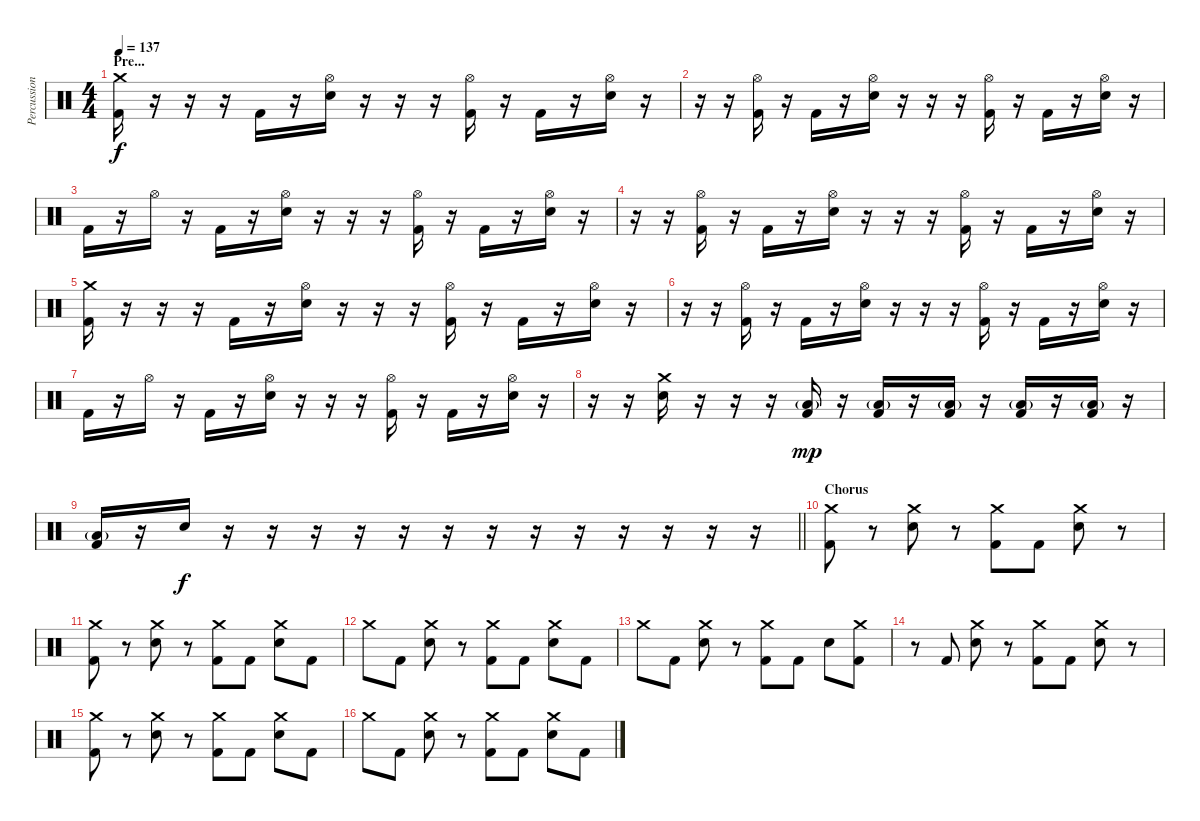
\track ("Percussion" "Percussion") {instrument percussion}
\staff {score}
\articulation defaults
\ts (4 4)
\section ("" "Pre... ")
\tempo 137
\clef neutral
\ks c
("Crash medium (hit)" "Kick (hit) 2").16{dy f} r.16 r.16 r.16 "Kick (hit) 2".16 r.16 ("Hi-Hat (open)" "Electric Snare (hit)").16 r.16 r.16 r.16 ("Hi-Hat (open)" "Kick (hit) 2").16 r.16 "Kick (hit) 2".16 r.16 ("Hi-Hat (open)" "Electric Snare (hit)").16 r.16 |
r.16 r.16 ("Hi-Hat (open)" "Kick (hit) 2").16 r.16 "Kick (hit) 2".16 r.16 ("Hi-Hat (open)" "Electric Snare (hit)").16 r.16 r.16 r.16 ("Hi-Hat (open)" "Kick (hit) 2").16 r.16 "Kick (hit) 2".16 r.16 ("Hi-Hat (open)" "Electric Snare (hit)").16 r.16 |
"Kick (hit) 2".16 r.16 "Hi-Hat (open)".16 r.16 "Kick (hit) 2".16 r.16 ("Hi-Hat (open)" "Electric Snare (hit)").16 r.16 r.16 r.16 ("Hi-Hat (open)" "Kick (hit) 2").16 r.16 "Kick (hit) 2".16 r.16 ("Hi-Hat (open)" "Electric Snare (hit)").16 r.16 |
r.16 r.16 ("Hi-Hat (open)" "Kick (hit) 2").16 r.16 "Kick (hit) 2".16 r.16 ("Hi-Hat (open)" "Electric Snare (hit)").16 r.16 r.16 r.16 ("Hi-Hat (open)" "Kick (hit) 2").16 r.16 "Kick (hit) 2".16 r.16 ("Hi-Hat (open)" "Electric Snare (hit)").16 r.16 |
("Crash medium (hit)" "Kick (hit) 2").16 r.16 r.16 r.16 "Kick (hit) 2".16 r.16 ("Hi-Hat (open)" "Electric Snare (hit)").16 r.16 r.16 r.16 ("Hi-Hat (open)" "Kick (hit) 2").16 r.16 "Kick (hit) 2".16 r.16 ("Hi-Hat (open)" "Electric Snare (hit)").16 r.16 |
r.16 r.16 ("Hi-Hat (open)" "Kick (hit) 2").16 r.16 "Kick (hit) 2".16 r.16 ("Hi-Hat (open)" "Electric Snare (hit)").16 r.16 r.16 r.16 ("Hi-Hat (open)" "Kick (hit) 2").16 r.16 "Kick (hit) 2".16 r.16 ("Hi-Hat (open)" "Electric Snare (hit)").16 r.16 |
"Kick (hit) 2".16 r.16 "Hi-Hat (open)".16 r.16 "Kick (hit) 2".16 r.16 ("Hi-Hat (open)" "Electric Snare (hit)").16 r.16 r.16 r.16 ("Hi-Hat (open)" "Kick (hit) 2").16 r.16 "Kick (hit) 2".16 r.16 ("Hi-Hat (open)" "Electric Snare (hit)").16 r.16 |
r.16 r.16 ("Crash medium (hit)" "Electric Snare (hit)").16 r.16 r.16 r.16 ("Low Floor Tom (hit)"{g} "Kick (hit) 2").16{dy mp} r.16 ("Low Floor Tom (hit)"{g} "Kick (hit) 2").16 r.16 ("Low Floor Tom (hit)"{g} "Kick (hit) 2").16 r.16 ("Low Floor Tom (hit)"{g} "Kick (hit) 2").16 r.16 ("Low Floor Tom (hit)"{g} "Kick (hit) 2").16 r.16 |
\barLineRight lightlight
("Low Floor Tom (hit)"{g} "Kick (hit) 2").16 r.16 "Electric Snare (hit)".16{dy f} r.16 r.16 r.16 r.16 r.16 r.16 r.16 r.16 r.16 r.16 r.16 r.16 r.16 |
\section ("" "Chorus")
("Crash medium (hit)" "Kick (hit) 2").8 r.8 ("Crash medium (hit)" "Electric Snare (hit)").8 r.8 ("Crash medium (hit)" "Kick (hit) 2").8 "Kick (hit) 2".8 ("Crash medium (hit)" "Electric Snare (hit)").8 r.8 |
("Crash medium (hit)" "Kick (hit) 2").8 r.8 ("Crash medium (hit)" "Electric Snare (hit)").8 r.8 ("Crash medium (hit)" "Kick (hit) 2").8 "Kick (hit) 2".8 ("Crash medium (hit)" "Electric Snare (hit)").8 "Kick (hit) 2".8 |
"Crash medium (hit)".8 "Kick (hit) 2".8 ("Crash medium (hit)" "Electric Snare (hit)").8 r.8 ("Crash medium (hit)" "Kick (hit) 2").8 "Kick (hit) 2".8 ("Crash medium (hit)" "Electric Snare (hit)").8 "Kick (hit) 2".8 |
"Crash medium (hit)".8 "Kick (hit) 2".8 ("Crash medium (hit)" "Electric Snare (hit)").8 r.8 ("Crash medium (hit)" "Kick (hit) 2").8 "Kick (hit) 2".8 "Electric Snare (hit)".8 ("Crash medium (hit)" "Kick (hit) 2").8 |
r.8 "Kick (hit) 2".8 ("Crash medium (hit)" "Electric Snare (hit)").8 r.8 ("Crash medium (hit)" "Kick (hit) 2").8 "Kick (hit) 2".8 ("Crash medium (hit)" "Electric Snare (hit)").8 r.8 |
("Crash medium (hit)" "Kick (hit) 2").8 r.8 ("Crash medium (hit)" "Electric Snare (hit)").8 r.8 ("Crash medium (hit)" "Kick (hit) 2").8 "Kick (hit) 2".8 ("Crash medium (hit)" "Electric Snare (hit)").8 "Kick (hit) 2".8 |
"Crash medium (hit)".8 "Kick (hit) 2".8 ("Crash medium (hit)" "Electric Snare (hit)").8 r.8 ("Crash medium (hit)" "Kick (hit) 2").8 "Kick (hit) 2".8 ("Crash medium (hit)" "Electric Snare (hit)").8 "Kick (hit) 2".8
